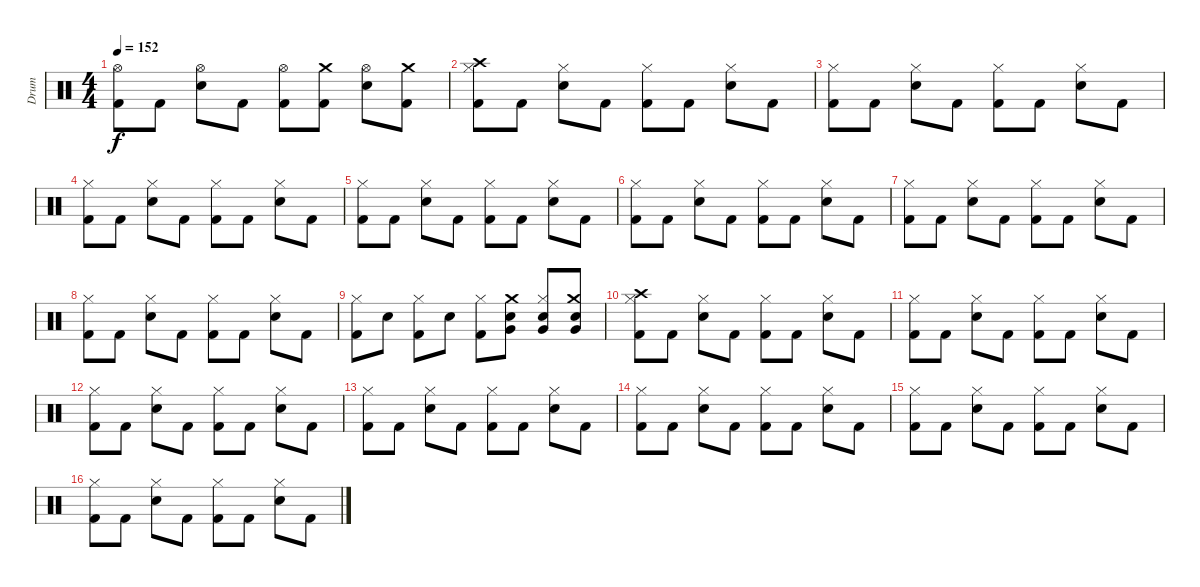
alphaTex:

\track ("Drum" "Drum") {instrument percussion}
\staff {score}
\articulation defaults
\ts (4 4)
\tempo 152
\clef neutral
\ks c
("Hi-Hat (open)" "Kick (hit) 2").8{dy f} "Kick (hit) 2".8 ("Hi-Hat (open)" "Electric Snare (hit)").8 "Kick (hit) 2".8 ("Hi-Hat (open)" "Kick (hit) 2").8 ("Crash medium (hit)" "Kick (hit) 2").8 ("Hi-Hat (open)" "Electric Snare (hit)").8 ("Crash medium (hit)" "Kick (hit) 2").8 |
("Crash high (hit)" "Hi-Hat (closed)" "Kick (hit) 2").8 "Kick (hit) 2".8 ("Hi-Hat (closed)" "Electric Snare (hit)").8 "Kick (hit) 2".8 ("Hi-Hat (closed)" "Kick (hit) 2").8 "Kick (hit) 2".8 ("Hi-Hat (closed)" "Electric Snare (hit)").8 "Kick (hit) 2".8 |
("Hi-Hat (closed)" "Kick (hit) 2").8 "Kick (hit) 2".8 ("Hi-Hat (closed)" "Electric Snare (hit)").8 "Kick (hit) 2".8 ("Hi-Hat (closed)" "Kick (hit) 2").8 "Kick (hit) 2".8 ("Hi-Hat (closed)" "Electric Snare (hit)").8 "Kick (hit) 2".8 |
("Hi-Hat (closed)" "Kick (hit) 2").8 "Kick (hit) 2".8 ("Hi-Hat (closed)" "Electric Snare (hit)").8 "Kick (hit) 2".8 ("Hi-Hat (closed)" "Kick (hit) 2").8 "Kick (hit) 2".8 ("Hi-Hat (closed)" "Electric Snare (hit)").8 "Kick (hit) 2".8 |
("Hi-Hat (closed)" "Kick (hit) 2").8 "Kick (hit) 2".8 ("Hi-Hat (closed)" "Electric Snare (hit)").8 "Kick (hit) 2".8 ("Hi-Hat (closed)" "Kick (hit) 2").8 "Kick (hit) 2".8 ("Hi-Hat (closed)" "Electric Snare (hit)").8 "Kick (hit) 2".8 |
("Hi-Hat (closed)" "Kick (hit) 2").8 "Kick (hit) 2".8 ("Hi-Hat (closed)" "Electric Snare (hit)").8 "Kick (hit) 2".8 ("Hi-Hat (closed)" "Kick (hit) 2").8 "Kick (hit) 2".8 ("Hi-Hat (closed)" "Electric Snare (hit)").8 "Kick (hit) 2".8 |
("Hi-Hat (closed)" "Kick (hit) 2").8 "Kick (hit) 2".8 ("Hi-Hat (closed)" "Electric Snare (hit)").8 "Kick (hit) 2".8 ("Hi-Hat (closed)" "Kick (hit) 2").8 "Kick (hit) 2".8 ("Hi-Hat (closed)" "Electric Snare (hit)").8 "Kick (hit) 2".8 |
("Hi-Hat (closed)" "Kick (hit) 2").8 "Kick (hit) 2".8 ("Hi-Hat (closed)" "Electric Snare (hit)").8 "Kick (hit) 2".8 ("Hi-Hat (closed)" "Kick (hit) 2").8 "Kick (hit) 2".8 ("Hi-Hat (closed)" "Electric Snare (hit)").8 "Kick (hit) 2".8 |
("Hi-Hat (closed)" "Kick (hit) 2").8 "Electric Snare (hit)".8 ("Hi-Hat (closed)" "Kick (hit) 2").8 "Electric Snare (hit)".8 ("Hi-Hat (closed)" "Kick (hit) 2").8 ("Crash medium (hit)" "Very Low Tom (hit)" "Electric Snare (hit)").8 ("Hi-Hat (closed)" "Very Low Tom (hit)" "Electric Snare (hit)").8 ("Crash medium (hit)" "Very Low Tom (hit)" "Electric Snare (hit)").8 |
("Crash high (hit)" "Hi-Hat (closed)" "Kick (hit) 2").8 "Kick (hit) 2".8 ("Hi-Hat (closed)" "Electric Snare (hit)").8 "Kick (hit) 2".8 ("Hi-Hat (closed)" "Kick (hit) 2").8 "Kick (hit) 2".8 ("Hi-Hat (closed)" "Electric Snare (hit)").8 "Kick (hit) 2".8 |
("Hi-Hat (closed)" "Kick (hit) 2").8 "Kick (hit) 2".8 ("Hi-Hat (closed)" "Electric Snare (hit)").8 "Kick (hit) 2".8 ("Hi-Hat (closed)" "Kick (hit) 2").8 "Kick (hit) 2".8 ("Hi-Hat (closed)" "Electric Snare (hit)").8 "Kick (hit) 2".8 |
("Hi-Hat (closed)" "Kick (hit) 2").8 "Kick (hit) 2".8 ("Hi-Hat (closed)" "Electric Snare (hit)").8 "Kick (hit) 2".8 ("Hi-Hat (closed)" "Kick (hit) 2").8 "Kick (hit) 2".8 ("Hi-Hat (closed)" "Electric Snare (hit)").8 "Kick (hit) 2".8 |
("Hi-Hat (closed)" "Kick (hit) 2").8 "Kick (hit) 2".8 ("Hi-Hat (closed)" "Electric Snare (hit)").8 "Kick (hit) 2".8 ("Hi-Hat (closed)" "Kick (hit) 2").8 "Kick (hit) 2".8 ("Hi-Hat (closed)" "Electric Snare (hit)").8 "Kick (hit) 2".8 |
("Hi-Hat (closed)" "Kick (hit) 2").8 "Kick (hit) 2".8 ("Hi-Hat (closed)" "Electric Snare (hit)").8 "Kick (hit) 2".8 ("Hi-Hat (closed)" "Kick (hit) 2").8 "Kick (hit) 2".8 ("Hi-Hat (closed)" "Electric Snare (hit)").8 "Kick (hit) 2".8 |
("Hi-Hat (closed)" "Kick (hit) 2").8 "Kick (hit) 2".8 ("Hi-Hat (closed)" "Electric Snare (hit)").8 "Kick (hit) 2".8 ("Hi-Hat (closed)" "Kick (hit) 2").8 "Kick (hit) 2".8 ("Hi-Hat (closed)" "Electric Snare (hit)").8 "Kick (hit) 2".8 |
("Hi-Hat (closed)" "Kick (hit) 2").8 "Kick (hit) 2".8 ("Hi-Hat (closed)" "Electric Snare (hit)").8 "Kick (hit) 2".8 ("Hi-Hat (closed)" "Kick (hit) 2").8 "Kick (hit) 2".8 ("Hi-Hat (closed)" "Electric Snare (hit)").8 "Kick (hit) 2".8
